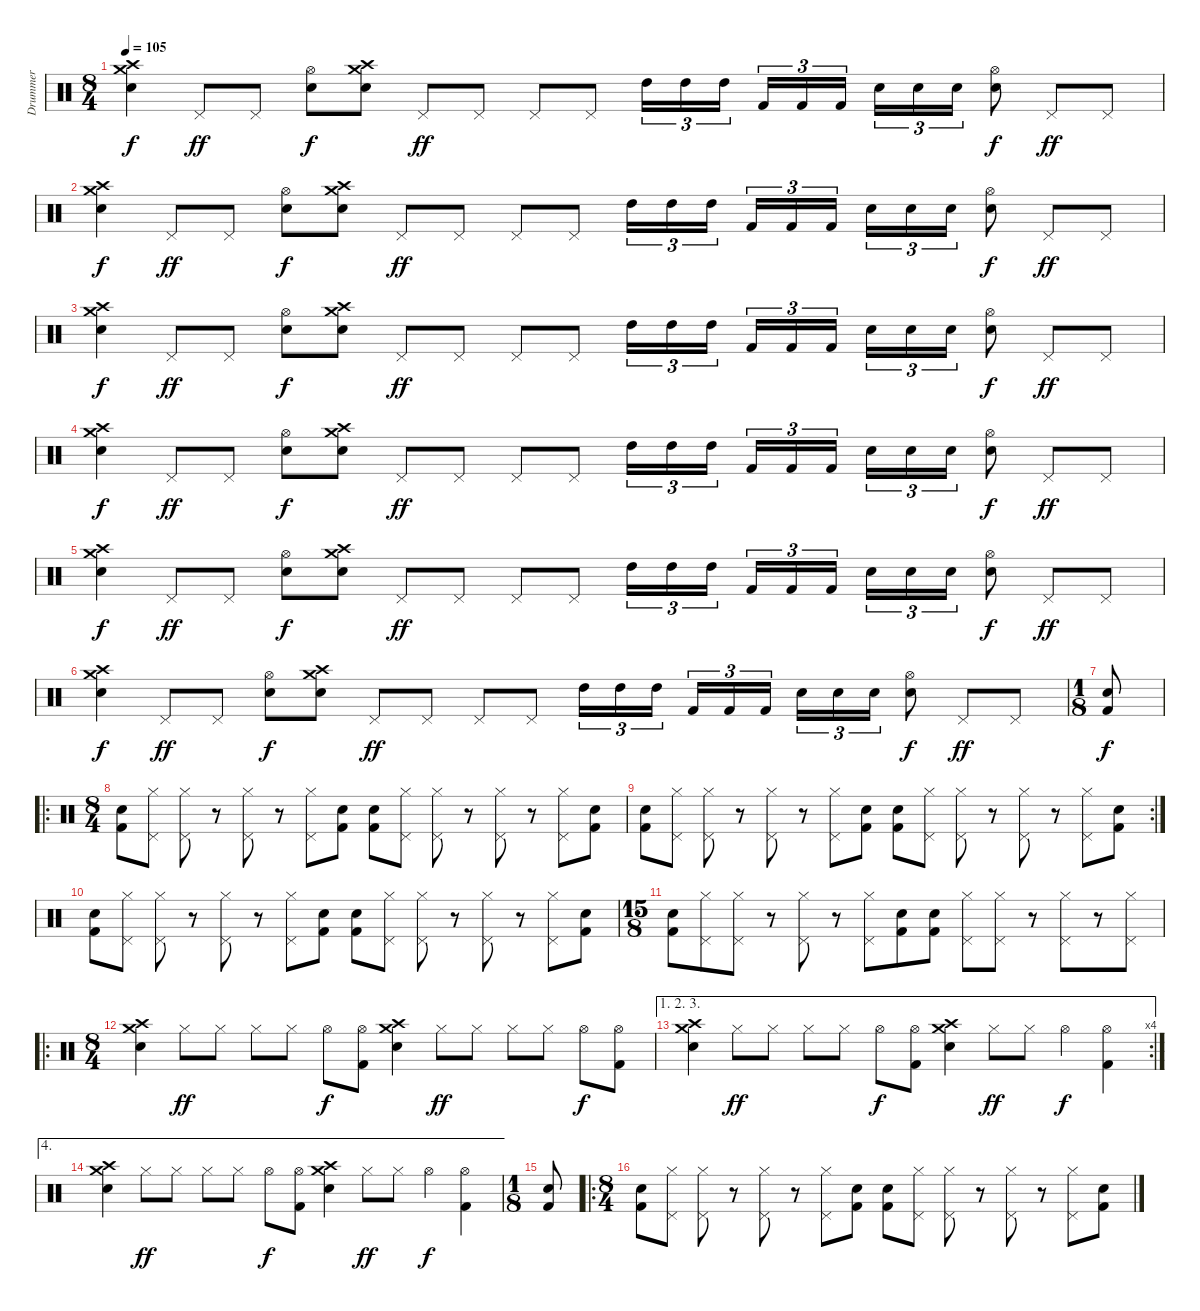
\track ("Drummer" "Drummer") {instrument percussion}
\staff {score}
\articulation defaults
\ts (8 4)
\tempo 105
\clef neutral
\ks c
("Electric Snare (hit)" "Crash medium (hit)" "Crash high (hit)").4{dy f} "Pedal Hi-Hat (hit)".8{dy ff} "Pedal Hi-Hat (hit)".8 ("Hi-Hat (open)" "Electric Snare (hit)").8{dy f} ("Crash medium (hit)" "Crash high (hit)" "Electric Snare (hit)").8 "Pedal Hi-Hat (hit)".8{dy ff} "Pedal Hi-Hat (hit)".8 "Pedal Hi-Hat (hit)".8 "Pedal Hi-Hat (hit)".8 "High Tom (hit)".16{tu (3 2)} "High Tom (hit)".16{tu (3 2)} "High Tom (hit)".16{tu (3 2)} "Kick (hit) 2".16{tu (3 2)} "Kick (hit) 2".16{tu (3 2)} "Kick (hit) 2".16{tu (3 2)} "Electric Snare (hit)".16{tu (3 2)} "Electric Snare (hit)".16{tu (3 2)} "Electric Snare (hit)".16{tu (3 2)} ("Hi-Hat (open)" "Electric Snare (hit)").8{dy f} "Pedal Hi-Hat (hit)".8{dy ff} "Pedal Hi-Hat (hit)".8 |
("Electric Snare (hit)" "Crash medium (hit)" "Crash high (hit)").4{dy f} "Pedal Hi-Hat (hit)".8{dy ff} "Pedal Hi-Hat (hit)".8 ("Hi-Hat (open)" "Electric Snare (hit)").8{dy f} ("Crash medium (hit)" "Crash high (hit)" "Electric Snare (hit)").8 "Pedal Hi-Hat (hit)".8{dy ff} "Pedal Hi-Hat (hit)".8 "Pedal Hi-Hat (hit)".8 "Pedal Hi-Hat (hit)".8 "High Tom (hit)".16{tu (3 2)} "High Tom (hit)".16{tu (3 2)} "High Tom (hit)".16{tu (3 2)} "Kick (hit) 2".16{tu (3 2)} "Kick (hit) 2".16{tu (3 2)} "Kick (hit) 2".16{tu (3 2)} "Electric Snare (hit)".16{tu (3 2)} "Electric Snare (hit)".16{tu (3 2)} "Electric Snare (hit)".16{tu (3 2)} ("Hi-Hat (open)" "Electric Snare (hit)").8{dy f} "Pedal Hi-Hat (hit)".8{dy ff} "Pedal Hi-Hat (hit)".8 |
("Electric Snare (hit)" "Crash medium (hit)" "Crash high (hit)").4{dy f} "Pedal Hi-Hat (hit)".8{dy ff} "Pedal Hi-Hat (hit)".8 ("Hi-Hat (open)" "Electric Snare (hit)").8{dy f} ("Crash medium (hit)" "Crash high (hit)" "Electric Snare (hit)").8 "Pedal Hi-Hat (hit)".8{dy ff} "Pedal Hi-Hat (hit)".8 "Pedal Hi-Hat (hit)".8 "Pedal Hi-Hat (hit)".8 "High Tom (hit)".16{tu (3 2)} "High Tom (hit)".16{tu (3 2)} "High Tom (hit)".16{tu (3 2)} "Kick (hit) 2".16{tu (3 2)} "Kick (hit) 2".16{tu (3 2)} "Kick (hit) 2".16{tu (3 2)} "Electric Snare (hit)".16{tu (3 2)} "Electric Snare (hit)".16{tu (3 2)} "Electric Snare (hit)".16{tu (3 2)} ("Hi-Hat (open)" "Electric Snare (hit)").8{dy f} "Pedal Hi-Hat (hit)".8{dy ff} "Pedal Hi-Hat (hit)".8 |
("Electric Snare (hit)" "Crash medium (hit)" "Crash high (hit)").4{dy f} "Pedal Hi-Hat (hit)".8{dy ff} "Pedal Hi-Hat (hit)".8 ("Hi-Hat (open)" "Electric Snare (hit)").8{dy f} ("Crash medium (hit)" "Crash high (hit)" "Electric Snare (hit)").8 "Pedal Hi-Hat (hit)".8{dy ff} "Pedal Hi-Hat (hit)".8 "Pedal Hi-Hat (hit)".8 "Pedal Hi-Hat (hit)".8 "High Tom (hit)".16{tu (3 2)} "High Tom (hit)".16{tu (3 2)} "High Tom (hit)".16{tu (3 2)} "Kick (hit) 2".16{tu (3 2)} "Kick (hit) 2".16{tu (3 2)} "Kick (hit) 2".16{tu (3 2)} "Electric Snare (hit)".16{tu (3 2)} "Electric Snare (hit)".16{tu (3 2)} "Electric Snare (hit)".16{tu (3 2)} ("Hi-Hat (open)" "Electric Snare (hit)").8{dy f} "Pedal Hi-Hat (hit)".8{dy ff} "Pedal Hi-Hat (hit)".8 |
("Electric Snare (hit)" "Crash medium (hit)" "Crash high (hit)").4{dy f} "Pedal Hi-Hat (hit)".8{dy ff} "Pedal Hi-Hat (hit)".8 ("Hi-Hat (open)" "Electric Snare (hit)").8{dy f} ("Crash medium (hit)" "Crash high (hit)" "Electric Snare (hit)").8 "Pedal Hi-Hat (hit)".8{dy ff} "Pedal Hi-Hat (hit)".8 "Pedal Hi-Hat (hit)".8 "Pedal Hi-Hat (hit)".8 "High Tom (hit)".16{tu (3 2)} "High Tom (hit)".16{tu (3 2)} "High Tom (hit)".16{tu (3 2)} "Kick (hit) 2".16{tu (3 2)} "Kick (hit) 2".16{tu (3 2)} "Kick (hit) 2".16{tu (3 2)} "Electric Snare (hit)".16{tu (3 2)} "Electric Snare (hit)".16{tu (3 2)} "Electric Snare (hit)".16{tu (3 2)} ("Hi-Hat (open)" "Electric Snare (hit)").8{dy f} "Pedal Hi-Hat (hit)".8{dy ff} "Pedal Hi-Hat (hit)".8 |
("Electric Snare (hit)" "Crash medium (hit)" "Crash high (hit)").4{dy f} "Pedal Hi-Hat (hit)".8{dy ff} "Pedal Hi-Hat (hit)".8 ("Hi-Hat (open)" "Electric Snare (hit)").8{dy f} ("Crash medium (hit)" "Crash high (hit)" "Electric Snare (hit)").8 "Pedal Hi-Hat (hit)".8{dy ff} "Pedal Hi-Hat (hit)".8 "Pedal Hi-Hat (hit)".8 "Pedal Hi-Hat (hit)".8 "High Tom (hit)".16{tu (3 2)} "High Tom (hit)".16{tu (3 2)} "High Tom (hit)".16{tu (3 2)} "Kick (hit) 2".16{tu (3 2)} "Kick (hit) 2".16{tu (3 2)} "Kick (hit) 2".16{tu (3 2)} "Electric Snare (hit)".16{tu (3 2)} "Electric Snare (hit)".16{tu (3 2)} "Electric Snare (hit)".16{tu (3 2)} ("Hi-Hat (open)" "Electric Snare (hit)").8{dy f} "Pedal Hi-Hat (hit)".8{dy ff} "Pedal Hi-Hat (hit)".8 |
\ts (1 8)
("Electric Snare (hit)" "Kick (hit) 2").8{dy f} |
\ro
\ts (8 4)
("Kick (hit) 2" "Electric Snare (hit)").8 ("Pedal Hi-Hat (hit)" "Hi-Hat (closed)").8 ("Hi-Hat (closed)" "Pedal Hi-Hat (hit)").8 r.8 ("Pedal Hi-Hat (hit)" "Hi-Hat (closed)").8 r.8 ("Pedal Hi-Hat (hit)" "Hi-Hat (closed)").8 ("Kick (hit) 2" "Electric Snare (hit)").8 ("Electric Snare (hit)" "Kick (hit) 2").8 ("Pedal Hi-Hat (hit)" "Hi-Hat (closed)").8 ("Hi-Hat (closed)" "Pedal Hi-Hat (hit)").8 r.8 ("Hi-Hat (closed)" "Pedal Hi-Hat (hit)").8 r.8 ("Hi-Hat (closed)" "Pedal Hi-Hat (hit)").8 ("Electric Snare (hit)" "Kick (hit) 2").8 |
\rc 2
("Kick (hit) 2" "Electric Snare (hit)").8 ("Pedal Hi-Hat (hit)" "Hi-Hat (closed)").8 ("Hi-Hat (closed)" "Pedal Hi-Hat (hit)").8 r.8 ("Pedal Hi-Hat (hit)" "Hi-Hat (closed)").8 r.8 ("Pedal Hi-Hat (hit)" "Hi-Hat (closed)").8 ("Kick (hit) 2" "Electric Snare (hit)").8 ("Electric Snare (hit)" "Kick (hit) 2").8 ("Pedal Hi-Hat (hit)" "Hi-Hat (closed)").8 ("Hi-Hat (closed)" "Pedal Hi-Hat (hit)").8 r.8 ("Hi-Hat (closed)" "Pedal Hi-Hat (hit)").8 r.8 ("Hi-Hat (closed)" "Pedal Hi-Hat (hit)").8 ("Electric Snare (hit)" "Kick (hit) 2").8 |
("Kick (hit) 2" "Electric Snare (hit)").8 ("Pedal Hi-Hat (hit)" "Hi-Hat (closed)").8 ("Hi-Hat (closed)" "Pedal Hi-Hat (hit)").8 r.8 ("Pedal Hi-Hat (hit)" "Hi-Hat (closed)").8 r.8 ("Pedal Hi-Hat (hit)" "Hi-Hat (closed)").8 ("Kick (hit) 2" "Electric Snare (hit)").8 ("Electric Snare (hit)" "Kick (hit) 2").8 ("Pedal Hi-Hat (hit)" "Hi-Hat (closed)").8 ("Hi-Hat (closed)" "Pedal Hi-Hat (hit)").8 r.8 ("Hi-Hat (closed)" "Pedal Hi-Hat (hit)").8 r.8 ("Hi-Hat (closed)" "Pedal Hi-Hat (hit)").8 ("Electric Snare (hit)" "Kick (hit) 2").8 |
\ts (15 8)
("Kick (hit) 2" "Electric Snare (hit)").8 ("Pedal Hi-Hat (hit)" "Hi-Hat (closed)").8 ("Hi-Hat (closed)" "Pedal Hi-Hat (hit)").8 r.8 ("Pedal Hi-Hat (hit)" "Hi-Hat (closed)").8 r.8 ("Pedal Hi-Hat (hit)" "Hi-Hat (closed)").8 ("Kick (hit) 2" "Electric Snare (hit)").8 ("Electric Snare (hit)" "Kick (hit) 2").8 ("Pedal Hi-Hat (hit)" "Hi-Hat (closed)").8 ("Hi-Hat (closed)" "Pedal Hi-Hat (hit)").8 r.8 ("Hi-Hat (closed)" "Pedal Hi-Hat (hit)").8 r.8 ("Hi-Hat (closed)" "Pedal Hi-Hat (hit)").8 |
\ro
\ts (8 4)
("Electric Snare (hit)" "Crash medium (hit)" "Crash high (hit)").4 "Hi-Hat (closed)".8{dy ff} "Hi-Hat (closed)".8 "Hi-Hat (closed)".8 "Hi-Hat (closed)".8 "Hi-Hat (open)".8{dy f} ("Hi-Hat (open)" "Kick (hit) 2").8 ("Crash high (hit)" "Crash medium (hit)" "Electric Snare (hit)").4 "Hi-Hat (closed)".8{dy ff} "Hi-Hat (closed)".8 "Hi-Hat (closed)".8 "Hi-Hat (closed)".8 "Hi-Hat (open)".8{dy f} ("Kick (hit) 2" "Hi-Hat (open)").8 |
\ae (1 2 3)
\rc 4
("Electric Snare (hit)" "Crash medium (hit)" "Crash high (hit)").4 "Hi-Hat (closed)".8{dy ff} "Hi-Hat (closed)".8 "Hi-Hat (closed)".8 "Hi-Hat (closed)".8 "Hi-Hat (open)".8{dy f} ("Hi-Hat (open)" "Kick (hit) 2").8 ("Crash high (hit)" "Crash medium (hit)" "Electric Snare (hit)").4 "Hi-Hat (closed)".8{dy ff} "Hi-Hat (closed)".8 "Hi-Hat (open)".4{dy f} ("Kick (hit) 2" "Hi-Hat (open)").4 |
\ae 4
("Electric Snare (hit)" "Crash medium (hit)" "Crash high (hit)").4 "Hi-Hat (closed)".8{dy ff} "Hi-Hat (closed)".8 "Hi-Hat (closed)".8 "Hi-Hat (closed)".8 "Hi-Hat (open)".8{dy f} ("Hi-Hat (open)" "Kick (hit) 2").8 ("Crash high (hit)" "Crash medium (hit)" "Electric Snare (hit)").4 "Hi-Hat (closed)".8{dy ff} "Hi-Hat (closed)".8 "Hi-Hat (open)".4{dy f} ("Kick (hit) 2" "Hi-Hat (open)").4 |
\ts (1 8)
("Electric Snare (hit)" "Kick (hit) 2").8 |
\ro
\ts (8 4)
("Kick (hit) 2" "Electric Snare (hit)").8 ("Pedal Hi-Hat (hit)" "Hi-Hat (closed)").8 ("Hi-Hat (closed)" "Pedal Hi-Hat (hit)").8 r.8 ("Pedal Hi-Hat (hit)" "Hi-Hat (closed)").8 r.8 ("Pedal Hi-Hat (hit)" "Hi-Hat (closed)").8 ("Kick (hit) 2" "Electric Snare (hit)").8 ("Electric Snare (hit)" "Kick (hit) 2").8 ("Pedal Hi-Hat (hit)" "Hi-Hat (closed)").8 ("Hi-Hat (closed)" "Pedal Hi-Hat (hit)").8 r.8 ("Hi-Hat (closed)" "Pedal Hi-Hat (hit)").8 r.8 ("Hi-Hat (closed)" "Pedal Hi-Hat (hit)").8 ("Electric Snare (hit)" "Kick (hit) 2").8
